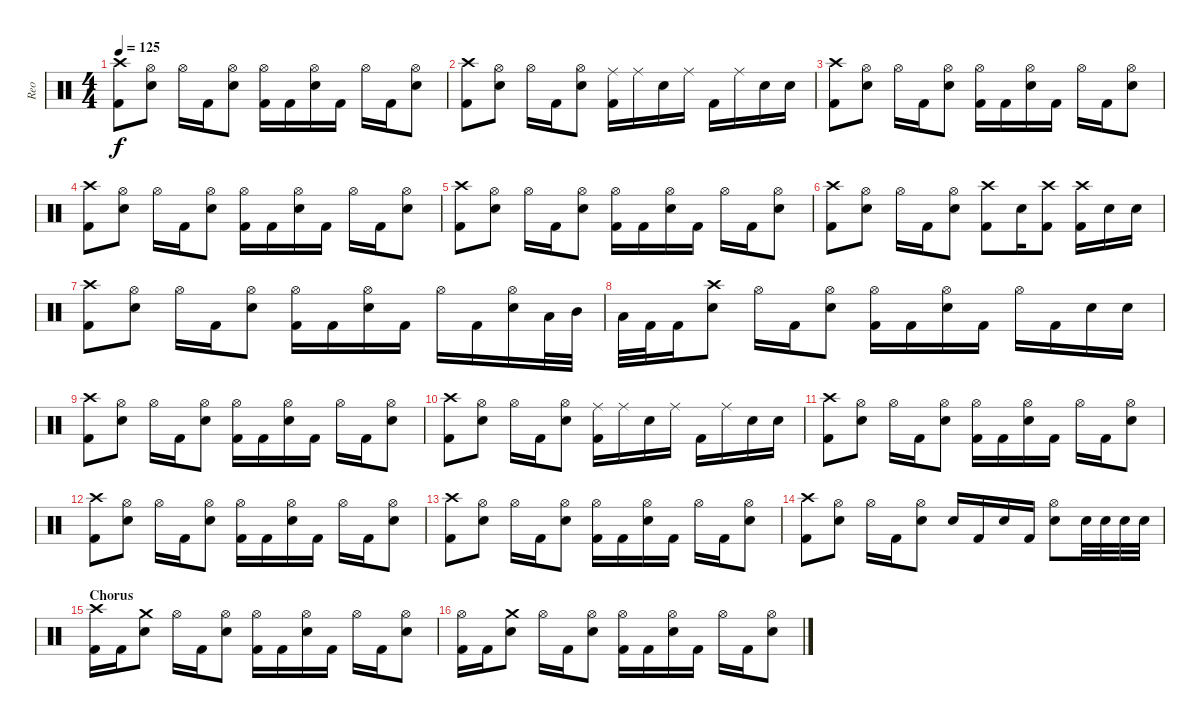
\track ("Reo" "Reo") {instrument percussion}
\staff {score}
\articulation defaults
\ts (4 4)
\tempo 125
\clef neutral
\ks c
("Crash high (hit)" "Kick (hit) 2").8{dy f} ("Hi-Hat (open)" "Electric Snare (hit)").8 "Hi-Hat (open)".16 "Kick (hit) 2".16 ("Hi-Hat (open)" "Electric Snare (hit)").8 ("Hi-Hat (open)" "Kick (hit) 2").16 "Kick (hit) 2".16 ("Hi-Hat (open)" "Electric Snare (hit)").16 "Kick (hit) 2".16 "Hi-Hat (open)".16 "Kick (hit) 2".16 ("Hi-Hat (open)" "Electric Snare (hit)").8 |
("Crash high (hit)" "Kick (hit) 2").8 ("Hi-Hat (open)" "Electric Snare (hit)").8 "Hi-Hat (open)".16 "Kick (hit) 2".16 ("Hi-Hat (open)" "Electric Snare (hit)").8 ("Ride (middle)" "Kick (hit) 2").16 "Ride (middle)".16 "Electric Snare (hit)".16 "Ride (middle)".16 "Kick (hit) 2".16 "Ride (middle)".16 "Electric Snare (hit)".16 "Electric Snare (hit)".16 |
("Crash high (hit)" "Kick (hit) 2").8 ("Hi-Hat (open)" "Electric Snare (hit)").8 "Hi-Hat (open)".16 "Kick (hit) 2".16 ("Hi-Hat (open)" "Electric Snare (hit)").8 ("Hi-Hat (open)" "Kick (hit) 2").16 "Kick (hit) 2".16 ("Hi-Hat (open)" "Electric Snare (hit)").16 "Kick (hit) 2".16 "Hi-Hat (open)".16 "Kick (hit) 2".16 ("Hi-Hat (open)" "Electric Snare (hit)").8 |
("Crash high (hit)" "Kick (hit) 2").8 ("Hi-Hat (open)" "Electric Snare (hit)").8 "Hi-Hat (open)".16 "Kick (hit) 2".16 ("Hi-Hat (open)" "Electric Snare (hit)").8 ("Hi-Hat (open)" "Kick (hit) 2").16 "Kick (hit) 2".16 ("Hi-Hat (open)" "Electric Snare (hit)").16 "Kick (hit) 2".16 "Hi-Hat (open)".16 "Kick (hit) 2".16 ("Hi-Hat (open)" "Electric Snare (hit)").8 |
("Crash high (hit)" "Kick (hit) 2").8 ("Hi-Hat (open)" "Electric Snare (hit)").8 "Hi-Hat (open)".16 "Kick (hit) 2".16 ("Hi-Hat (open)" "Electric Snare (hit)").8 ("Hi-Hat (open)" "Kick (hit) 2").16 "Kick (hit) 2".16 ("Hi-Hat (open)" "Electric Snare (hit)").16 "Kick (hit) 2".16 "Hi-Hat (open)".16 "Kick (hit) 2".16 ("Hi-Hat (open)" "Electric Snare (hit)").8 |
("Crash high (hit)" "Kick (hit) 2").8 ("Hi-Hat (open)" "Electric Snare (hit)").8 "Hi-Hat (open)".16 "Kick (hit) 2".16 ("Hi-Hat (open)" "Electric Snare (hit)").8 ("Crash high (hit)" "Kick (hit) 2").8 "Electric Snare (hit)".16 ("Crash high (hit)" "Kick (hit) 2").8 ("Kick (hit) 2" "Crash high (hit)").16 "Electric Snare (hit)".16 "Electric Snare (hit)".16 |
("Crash high (hit)" "Kick (hit) 2").8 ("Hi-Hat (open)" "Electric Snare (hit)").8 "Hi-Hat (open)".16 "Kick (hit) 2".16 ("Hi-Hat (open)" "Electric Snare (hit)").8 ("Hi-Hat (open)" "Kick (hit) 2").16 "Kick (hit) 2".16 ("Hi-Hat (open)" "Electric Snare (hit)").16 "Kick (hit) 2".16 "Hi-Hat (open)".16 "Kick (hit) 2".16 ("Hi-Hat (open)" "Electric Snare (hit)").16 "Low Tom (hit)".32 "Mid Tom (hit)".32 |
"Low Tom (hit)".32 "Kick (hit) 2".32 "Kick (hit) 2".16 ("Crash high (hit)" "Electric Snare (hit)").8 "Hi-Hat (open)".16 "Kick (hit) 2".16 ("Hi-Hat (open)" "Electric Snare (hit)").8 ("Hi-Hat (open)" "Kick (hit) 2").16 "Kick (hit) 2".16 ("Hi-Hat (open)" "Electric Snare (hit)").16 "Kick (hit) 2".16 "Hi-Hat (open)".16 "Kick (hit) 2".16 "Electric Snare (hit)".16 "Electric Snare (hit)".16 |
("Crash high (hit)" "Kick (hit) 2").8 ("Hi-Hat (open)" "Electric Snare (hit)").8 "Hi-Hat (open)".16 "Kick (hit) 2".16 ("Hi-Hat (open)" "Electric Snare (hit)").8 ("Hi-Hat (open)" "Kick (hit) 2").16 "Kick (hit) 2".16 ("Hi-Hat (open)" "Electric Snare (hit)").16 "Kick (hit) 2".16 "Hi-Hat (open)".16 "Kick (hit) 2".16 ("Hi-Hat (open)" "Electric Snare (hit)").8 |
("Crash high (hit)" "Kick (hit) 2").8 ("Hi-Hat (open)" "Electric Snare (hit)").8 "Hi-Hat (open)".16 "Kick (hit) 2".16 ("Hi-Hat (open)" "Electric Snare (hit)").8 ("Ride (middle)" "Kick (hit) 2").16 "Ride (middle)".16 "Electric Snare (hit)".16 "Ride (middle)".16 "Kick (hit) 2".16 "Ride (middle)".16 "Electric Snare (hit)".16 "Electric Snare (hit)".16 |
("Crash high (hit)" "Kick (hit) 2").8 ("Hi-Hat (open)" "Electric Snare (hit)").8 "Hi-Hat (open)".16 "Kick (hit) 2".16 ("Hi-Hat (open)" "Electric Snare (hit)").8 ("Hi-Hat (open)" "Kick (hit) 2").16 "Kick (hit) 2".16 ("Hi-Hat (open)" "Electric Snare (hit)").16 "Kick (hit) 2".16 "Hi-Hat (open)".16 "Kick (hit) 2".16 ("Hi-Hat (open)" "Electric Snare (hit)").8 |
("Crash high (hit)" "Kick (hit) 2").8 ("Hi-Hat (open)" "Electric Snare (hit)").8 "Hi-Hat (open)".16 "Kick (hit) 2".16 ("Hi-Hat (open)" "Electric Snare (hit)").8 ("Hi-Hat (open)" "Kick (hit) 2").16 "Kick (hit) 2".16 ("Hi-Hat (open)" "Electric Snare (hit)").16 "Kick (hit) 2".16 "Hi-Hat (open)".16 "Kick (hit) 2".16 ("Hi-Hat (open)" "Electric Snare (hit)").8 |
("Crash high (hit)" "Kick (hit) 2").8 ("Hi-Hat (open)" "Electric Snare (hit)").8 "Hi-Hat (open)".16 "Kick (hit) 2".16 ("Hi-Hat (open)" "Electric Snare (hit)").8 ("Hi-Hat (open)" "Kick (hit) 2").16 "Kick (hit) 2".16 ("Hi-Hat (open)" "Electric Snare (hit)").16 "Kick (hit) 2".16 "Hi-Hat (open)".16 "Kick (hit) 2".16 ("Hi-Hat (open)" "Electric Snare (hit)").8 |
("Crash high (hit)" "Kick (hit) 2").8 ("Hi-Hat (open)" "Electric Snare (hit)").8 "Hi-Hat (open)".16 "Kick (hit) 2".16 ("Hi-Hat (open)" "Electric Snare (hit)").8 "Electric Snare (hit)".16 "Kick (hit) 2".16 "Electric Snare (hit)".16 "Kick (hit) 2".16 ("Electric Snare (hit)" "Hi-Hat (open)").8 "Electric Snare (hit)".32 "Electric Snare (hit)".32 "Electric Snare (hit)".32 "Electric Snare (hit)".32 |
\section ("" "Chorus")
("Crash high (hit)" "Kick (hit) 2").16 "Kick (hit) 2".16 ("Crash medium (hit)" "Electric Snare (hit)").8 "Hi-Hat (open)".16 "Kick (hit) 2".16 ("Hi-Hat (open)" "Electric Snare (hit)").8 ("Hi-Hat (open)" "Kick (hit) 2").16 "Kick (hit) 2".16 ("Hi-Hat (open)" "Electric Snare (hit)").16 "Kick (hit) 2".16 "Hi-Hat (open)".16 "Kick (hit) 2".16 ("Hi-Hat (open)" "Electric Snare (hit)").8 |
("Hi-Hat (open)" "Kick (hit) 2").16 "Kick (hit) 2".16 ("Crash medium (hit)" "Electric Snare (hit)").8 "Hi-Hat (open)".16 "Kick (hit) 2".16 ("Hi-Hat (open)" "Electric Snare (hit)").8 ("Hi-Hat (open)" "Kick (hit) 2").16 "Kick (hit) 2".16 ("Hi-Hat (open)" "Electric Snare (hit)").16 "Kick (hit) 2".16 "Hi-Hat (open)".16 "Kick (hit) 2".16 ("Hi-Hat (open)" "Electric Snare (hit)").8
